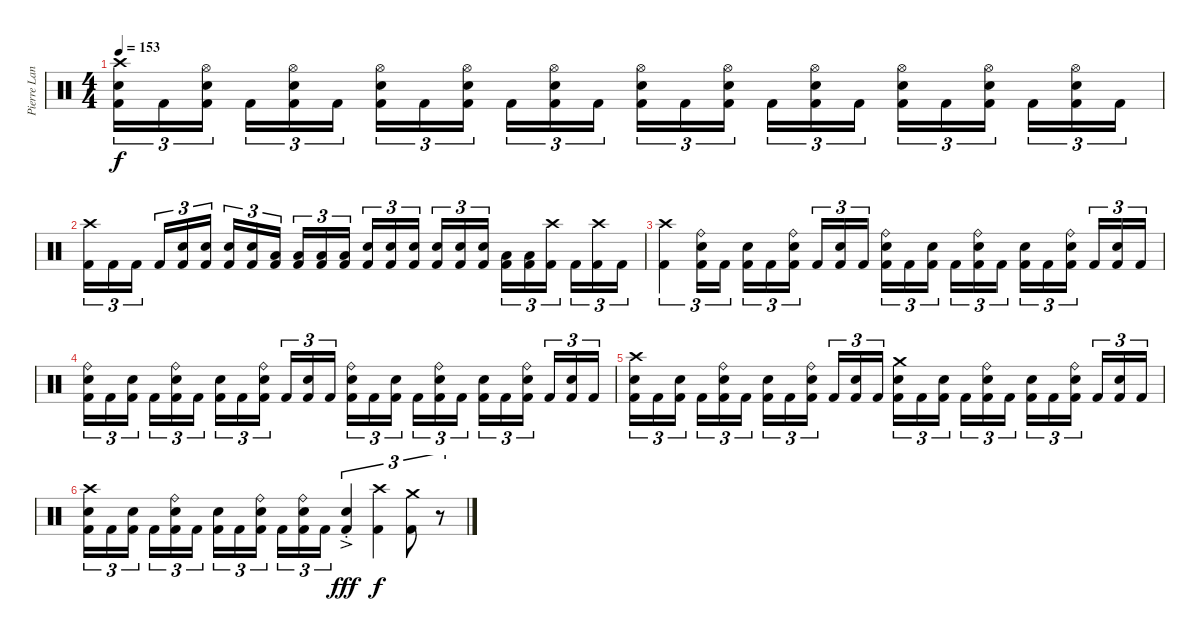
\track ("Pierre Langlois (Drums)" "Pierre Lan") {instrument percussion}
\staff {score}
\articulation defaults
\ts (4 4)
\tempo 153
\clef neutral
\ks c
("Crash high (hit)" "Snare (hit) 2" "Kick (hit) 2").16{tu (3 2) dy f} "Kick (hit) 2".16{tu (3 2)} ("Hi-Hat (open)" "Snare (hit) 2" "Kick (hit) 2").16{tu (3 2)} "Kick (hit) 2".16{tu (3 2)} ("Hi-Hat (open)" "Snare (hit) 2" "Kick (hit) 2").16{tu (3 2)} "Kick (hit) 2".16{tu (3 2)} ("Hi-Hat (open)" "Snare (hit) 2" "Kick (hit) 2").16{tu (3 2)} "Kick (hit) 2".16{tu (3 2)} ("Hi-Hat (open)" "Snare (hit) 2" "Kick (hit) 2").16{tu (3 2)} "Kick (hit) 2".16{tu (3 2)} ("Hi-Hat (open)" "Snare (hit) 2" "Kick (hit) 2").16{tu (3 2)} "Kick (hit) 2".16{tu (3 2)} ("Hi-Hat (open)" "Snare (hit) 2" "Kick (hit) 2").16{tu (3 2)} "Kick (hit) 2".16{tu (3 2)} ("Hi-Hat (open)" "Snare (hit) 2" "Kick (hit) 2").16{tu (3 2)} "Kick (hit) 2".16{tu (3 2)} ("Hi-Hat (open)" "Snare (hit) 2" "Kick (hit) 2").16{tu (3 2)} "Kick (hit) 2".16{tu (3 2)} ("Hi-Hat (open)" "Snare (hit) 2" "Kick (hit) 2").16{tu (3 2)} "Kick (hit) 2".16{tu (3 2)} ("Hi-Hat (open)" "Snare (hit) 2" "Kick (hit) 2").16{tu (3 2)} "Kick (hit) 2".16{tu (3 2)} ("Hi-Hat (open)" "Snare (hit) 2" "Kick (hit) 2").16{tu (3 2)} "Kick (hit) 2".16{tu (3 2)} |
("Crash high (hit)" "Kick (hit) 2").16{tu (3 2)} "Kick (hit) 2".16{tu (3 2)} "Kick (hit) 2".16{tu (3 2)} "Kick (hit) 2".16{tu (3 2)} ("Snare (hit) 2" "Kick (hit) 2").16{tu (3 2)} ("Snare (hit) 2" "Kick (hit) 2").16{tu (3 2)} ("Snare (hit) 2" "Kick (hit) 2").16{tu (3 2)} ("Snare (hit) 2" "Kick (hit) 2").16{tu (3 2)} ("Low Tom (hit)" "Kick (hit) 2").16{tu (3 2)} ("Low Tom (hit)" "Kick (hit) 2").16{tu (3 2)} ("Low Tom (hit)" "Kick (hit) 2").16{tu (3 2)} ("Low Tom (hit)" "Kick (hit) 2").16{tu (3 2)} ("Snare (hit) 2" "Kick (hit) 2").16{tu (3 2)} ("Snare (hit) 2" "Kick (hit) 2").16{tu (3 2)} ("Snare (hit) 2" "Kick (hit) 2").16{tu (3 2)} ("Snare (hit) 2" "Kick (hit) 2").16{tu (3 2)} ("Snare (hit) 2" "Kick (hit) 2").16{tu (3 2)} ("Snare (hit) 2" "Kick (hit) 2").16{tu (3 2)} ("Low Tom (hit)" "Kick (hit) 2").16{tu (3 2)} ("Low Tom (hit)" "Kick (hit) 2").16{tu (3 2)} ("Crash high (hit)" "Kick (hit) 2").16{tu (3 2)} "Kick (hit) 2".16{tu (3 2)} ("Crash high (hit)" "Kick (hit) 2").16{tu (3 2)} "Kick (hit) 2".16{tu (3 2)} |
("Crash high (hit)" "Kick (hit) 2").4{tu (3 2)} ("Ride (bell)" "Snare (hit) 2" "Kick (hit) 2").16{tu (3 2)} "Kick (hit) 2".16{tu (3 2)} ("Snare (hit) 2" "Kick (hit) 2").16{tu (3 2)} "Kick (hit) 2".16{tu (3 2)} ("Ride (bell)" "Snare (hit) 2" "Kick (hit) 2").16{tu (3 2)} "Kick (hit) 2".16{tu (3 2)} ("Snare (hit) 2" "Kick (hit) 2").16{tu (3 2)} "Kick (hit) 2".16{tu (3 2)} ("Ride (bell)" "Snare (hit) 2" "Kick (hit) 2").16{tu (3 2)} "Kick (hit) 2".16{tu (3 2)} ("Snare (hit) 2" "Kick (hit) 2").16{tu (3 2)} "Kick (hit) 2".16{tu (3 2)} ("Ride (bell)" "Snare (hit) 2" "Kick (hit) 2").16{tu (3 2)} "Kick (hit) 2".16{tu (3 2)} ("Snare (hit) 2" "Kick (hit) 2").16{tu (3 2)} "Kick (hit) 2".16{tu (3 2)} ("Ride (bell)" "Snare (hit) 2" "Kick (hit) 2").16{tu (3 2)} "Kick (hit) 2".16{tu (3 2)} ("Snare (hit) 2" "Kick (hit) 2").16{tu (3 2)} "Kick (hit) 2".16{tu (3 2)} |
("Ride (bell)" "Snare (hit) 2" "Kick (hit) 2").16{tu (3 2)} "Kick (hit) 2".16{tu (3 2)} ("Snare (hit) 2" "Kick (hit) 2").16{tu (3 2)} "Kick (hit) 2".16{tu (3 2)} ("Ride (bell)" "Snare (hit) 2" "Kick (hit) 2").16{tu (3 2)} "Kick (hit) 2".16{tu (3 2)} ("Snare (hit) 2" "Kick (hit) 2").16{tu (3 2)} "Kick (hit) 2".16{tu (3 2)} ("Ride (bell)" "Snare (hit) 2" "Kick (hit) 2").16{tu (3 2)} "Kick (hit) 2".16{tu (3 2)} ("Snare (hit) 2" "Kick (hit) 2").16{tu (3 2)} "Kick (hit) 2".16{tu (3 2)} ("Ride (bell)" "Snare (hit) 2" "Kick (hit) 2").16{tu (3 2)} "Kick (hit) 2".16{tu (3 2)} ("Snare (hit) 2" "Kick (hit) 2").16{tu (3 2)} "Kick (hit) 2".16{tu (3 2)} ("Ride (bell)" "Snare (hit) 2" "Kick (hit) 2").16{tu (3 2)} "Kick (hit) 2".16{tu (3 2)} ("Snare (hit) 2" "Kick (hit) 2").16{tu (3 2)} "Kick (hit) 2".16{tu (3 2)} ("Ride (bell)" "Snare (hit) 2" "Kick (hit) 2").16{tu (3 2)} "Kick (hit) 2".16{tu (3 2)} ("Snare (hit) 2" "Kick (hit) 2").16{tu (3 2)} "Kick (hit) 2".16{tu (3 2)} |
("Crash high (hit)" "Snare (hit) 2" "Kick (hit) 2").16{tu (3 2)} "Kick (hit) 2".16{tu (3 2)} ("Snare (hit) 2" "Kick (hit) 2").16{tu (3 2)} "Kick (hit) 2".16{tu (3 2)} ("Ride (bell)" "Snare (hit) 2" "Kick (hit) 2").16{tu (3 2)} "Kick (hit) 2".16{tu (3 2)} ("Snare (hit) 2" "Kick (hit) 2").16{tu (3 2)} "Kick (hit) 2".16{tu (3 2)} ("Ride (bell)" "Snare (hit) 2" "Kick (hit) 2").16{tu (3 2)} "Kick (hit) 2".16{tu (3 2)} ("Snare (hit) 2" "Kick (hit) 2").16{tu (3 2)} "Kick (hit) 2".16{tu (3 2)} ("Crash medium (hit)" "Snare (hit) 2" "Kick (hit) 2").16{tu (3 2)} "Kick (hit) 2".16{tu (3 2)} ("Snare (hit) 2" "Kick (hit) 2").16{tu (3 2)} "Kick (hit) 2".16{tu (3 2)} ("Ride (bell)" "Snare (hit) 2" "Kick (hit) 2").16{tu (3 2)} "Kick (hit) 2".16{tu (3 2)} ("Snare (hit) 2" "Kick (hit) 2").16{tu (3 2)} "Kick (hit) 2".16{tu (3 2)} ("Ride (bell)" "Snare (hit) 2" "Kick (hit) 2").16{tu (3 2)} "Kick (hit) 2".16{tu (3 2)} ("Snare (hit) 2" "Kick (hit) 2").16{tu (3 2)} "Kick (hit) 2".16{tu (3 2)} |
("Crash high (hit)" "Snare (hit) 2" "Kick (hit) 2").16{tu (3 2)} "Kick (hit) 2".16{tu (3 2)} ("Snare (hit) 2" "Kick (hit) 2").16{tu (3 2)} "Kick (hit) 2".16{tu (3 2)} ("Ride (bell)" "Snare (hit) 2" "Kick (hit) 2").16{tu (3 2)} "Kick (hit) 2".16{tu (3 2)} ("Snare (hit) 2" "Kick (hit) 2").16{tu (3 2)} "Kick (hit) 2".16{tu (3 2)} ("Ride (bell)" "Snare (hit) 2" "Kick (hit) 2").16{tu (3 2)} "Kick (hit) 2".16{tu (3 2)} ("Ride (bell)" "Snare (hit) 2" "Kick (hit) 2").16{tu (3 2)} "Kick (hit) 2".16{tu (3 2)} ("Snare (hit) 2"{ac st} "Kick (hit) 2").4{tu (3 2) dy fff} ("Crash high (hit)" "Kick (hit) 2").4{tu (3 2) dy f} ("Crash medium (hit)" "Kick (hit) 2").8{tu (3 2)} r.8{tu (3 2) volume 0}
